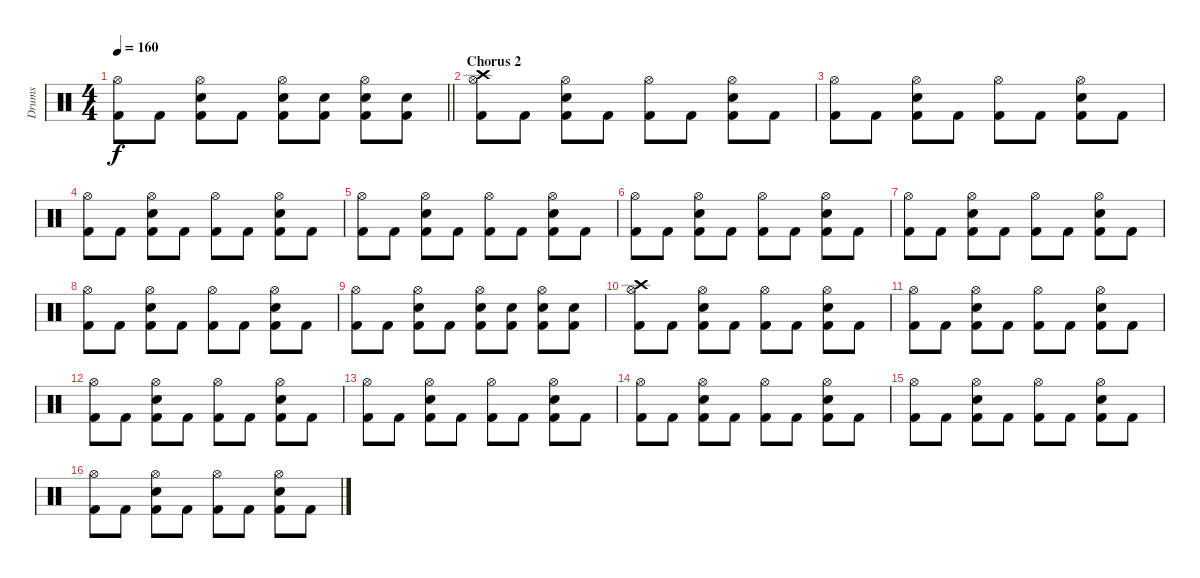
\track ("Drums" "Drums") {instrument percussion}
\staff {score}
\articulation defaults
\ts (4 4)
\tempo 160
\clef neutral
\barLineRight lightlight
\ks c
("Hi-Hat (open)" "Kick (hit) 2").8{dy f} "Kick (hit) 2".8 ("Hi-Hat (open)" "Snare (hit) 2" "Kick (hit) 2").8 "Kick (hit) 2".8 ("Hi-Hat (open)" "Snare (hit) 2" "Kick (hit) 2").8 ("Snare (hit) 2" "Kick (hit) 2").8 ("Hi-Hat (open)" "Snare (hit) 2" "Kick (hit) 2").8 ("Snare (hit) 2" "Kick (hit) 2").8 |
\section ("" "Chorus 2")
("Crash high (hit)" "Hi-Hat (open)" "Kick (hit) 2").8 "Kick (hit) 2".8 ("Hi-Hat (open)" "Snare (hit) 2" "Kick (hit) 2").8 "Kick (hit) 2".8 ("Hi-Hat (open)" "Kick (hit) 2").8 "Kick (hit) 2".8 ("Hi-Hat (open)" "Snare (hit) 2" "Kick (hit) 2").8 "Kick (hit) 2".8 |
("Hi-Hat (open)" "Kick (hit) 2").8 "Kick (hit) 2".8 ("Hi-Hat (open)" "Snare (hit) 2" "Kick (hit) 2").8 "Kick (hit) 2".8 ("Hi-Hat (open)" "Kick (hit) 2").8 "Kick (hit) 2".8 ("Hi-Hat (open)" "Snare (hit) 2" "Kick (hit) 2").8 "Kick (hit) 2".8 |
("Hi-Hat (open)" "Kick (hit) 2").8 "Kick (hit) 2".8 ("Hi-Hat (open)" "Snare (hit) 2" "Kick (hit) 2").8 "Kick (hit) 2".8 ("Hi-Hat (open)" "Kick (hit) 2").8 "Kick (hit) 2".8 ("Hi-Hat (open)" "Snare (hit) 2" "Kick (hit) 2").8 "Kick (hit) 2".8 |
("Hi-Hat (open)" "Kick (hit) 2").8 "Kick (hit) 2".8 ("Hi-Hat (open)" "Snare (hit) 2" "Kick (hit) 2").8 "Kick (hit) 2".8 ("Hi-Hat (open)" "Kick (hit) 2").8 "Kick (hit) 2".8 ("Hi-Hat (open)" "Snare (hit) 2" "Kick (hit) 2").8 "Kick (hit) 2".8 |
("Hi-Hat (open)" "Kick (hit) 2").8 "Kick (hit) 2".8 ("Hi-Hat (open)" "Snare (hit) 2" "Kick (hit) 2").8 "Kick (hit) 2".8 ("Hi-Hat (open)" "Kick (hit) 2").8 "Kick (hit) 2".8 ("Hi-Hat (open)" "Snare (hit) 2" "Kick (hit) 2").8 "Kick (hit) 2".8 |
("Hi-Hat (open)" "Kick (hit) 2").8 "Kick (hit) 2".8 ("Hi-Hat (open)" "Snare (hit) 2" "Kick (hit) 2").8 "Kick (hit) 2".8 ("Hi-Hat (open)" "Kick (hit) 2").8 "Kick (hit) 2".8 ("Hi-Hat (open)" "Snare (hit) 2" "Kick (hit) 2").8 "Kick (hit) 2".8 |
("Hi-Hat (open)" "Kick (hit) 2").8 "Kick (hit) 2".8 ("Hi-Hat (open)" "Snare (hit) 2" "Kick (hit) 2").8 "Kick (hit) 2".8 ("Hi-Hat (open)" "Kick (hit) 2").8 "Kick (hit) 2".8 ("Hi-Hat (open)" "Snare (hit) 2" "Kick (hit) 2").8 "Kick (hit) 2".8 |
("Hi-Hat (open)" "Kick (hit) 2").8 "Kick (hit) 2".8 ("Hi-Hat (open)" "Snare (hit) 2" "Kick (hit) 2").8 "Kick (hit) 2".8 ("Hi-Hat (open)" "Snare (hit) 2" "Kick (hit) 2").8 ("Snare (hit) 2" "Kick (hit) 2").8 ("Hi-Hat (open)" "Snare (hit) 2" "Kick (hit) 2").8 ("Snare (hit) 2" "Kick (hit) 2").8 |
("Crash high (hit)" "Hi-Hat (open)" "Kick (hit) 2").8 "Kick (hit) 2".8 ("Hi-Hat (open)" "Snare (hit) 2" "Kick (hit) 2").8 "Kick (hit) 2".8 ("Hi-Hat (open)" "Kick (hit) 2").8 "Kick (hit) 2".8 ("Hi-Hat (open)" "Snare (hit) 2" "Kick (hit) 2").8 "Kick (hit) 2".8 |
("Hi-Hat (open)" "Kick (hit) 2").8 "Kick (hit) 2".8 ("Hi-Hat (open)" "Snare (hit) 2" "Kick (hit) 2").8 "Kick (hit) 2".8 ("Hi-Hat (open)" "Kick (hit) 2").8 "Kick (hit) 2".8 ("Hi-Hat (open)" "Snare (hit) 2" "Kick (hit) 2").8 "Kick (hit) 2".8 |
("Hi-Hat (open)" "Kick (hit) 2").8 "Kick (hit) 2".8 ("Hi-Hat (open)" "Snare (hit) 2" "Kick (hit) 2").8 "Kick (hit) 2".8 ("Hi-Hat (open)" "Kick (hit) 2").8 "Kick (hit) 2".8 ("Hi-Hat (open)" "Snare (hit) 2" "Kick (hit) 2").8 "Kick (hit) 2".8 |
("Hi-Hat (open)" "Kick (hit) 2").8 "Kick (hit) 2".8 ("Hi-Hat (open)" "Snare (hit) 2" "Kick (hit) 2").8 "Kick (hit) 2".8 ("Hi-Hat (open)" "Kick (hit) 2").8 "Kick (hit) 2".8 ("Hi-Hat (open)" "Snare (hit) 2" "Kick (hit) 2").8 "Kick (hit) 2".8 |
("Hi-Hat (open)" "Kick (hit) 2").8 "Kick (hit) 2".8 ("Hi-Hat (open)" "Snare (hit) 2" "Kick (hit) 2").8 "Kick (hit) 2".8 ("Hi-Hat (open)" "Kick (hit) 2").8 "Kick (hit) 2".8 ("Hi-Hat (open)" "Snare (hit) 2" "Kick (hit) 2").8 "Kick (hit) 2".8 |
("Hi-Hat (open)" "Kick (hit) 2").8 "Kick (hit) 2".8 ("Hi-Hat (open)" "Snare (hit) 2" "Kick (hit) 2").8 "Kick (hit) 2".8 ("Hi-Hat (open)" "Kick (hit) 2").8 "Kick (hit) 2".8 ("Hi-Hat (open)" "Snare (hit) 2" "Kick (hit) 2").8 "Kick (hit) 2".8 |
("Hi-Hat (open)" "Kick (hit) 2").8 "Kick (hit) 2".8 ("Hi-Hat (open)" "Snare (hit) 2" "Kick (hit) 2").8 "Kick (hit) 2".8 ("Hi-Hat (open)" "Kick (hit) 2").8 "Kick (hit) 2".8 ("Hi-Hat (open)" "Snare (hit) 2" "Kick (hit) 2").8 "Kick (hit) 2".8
